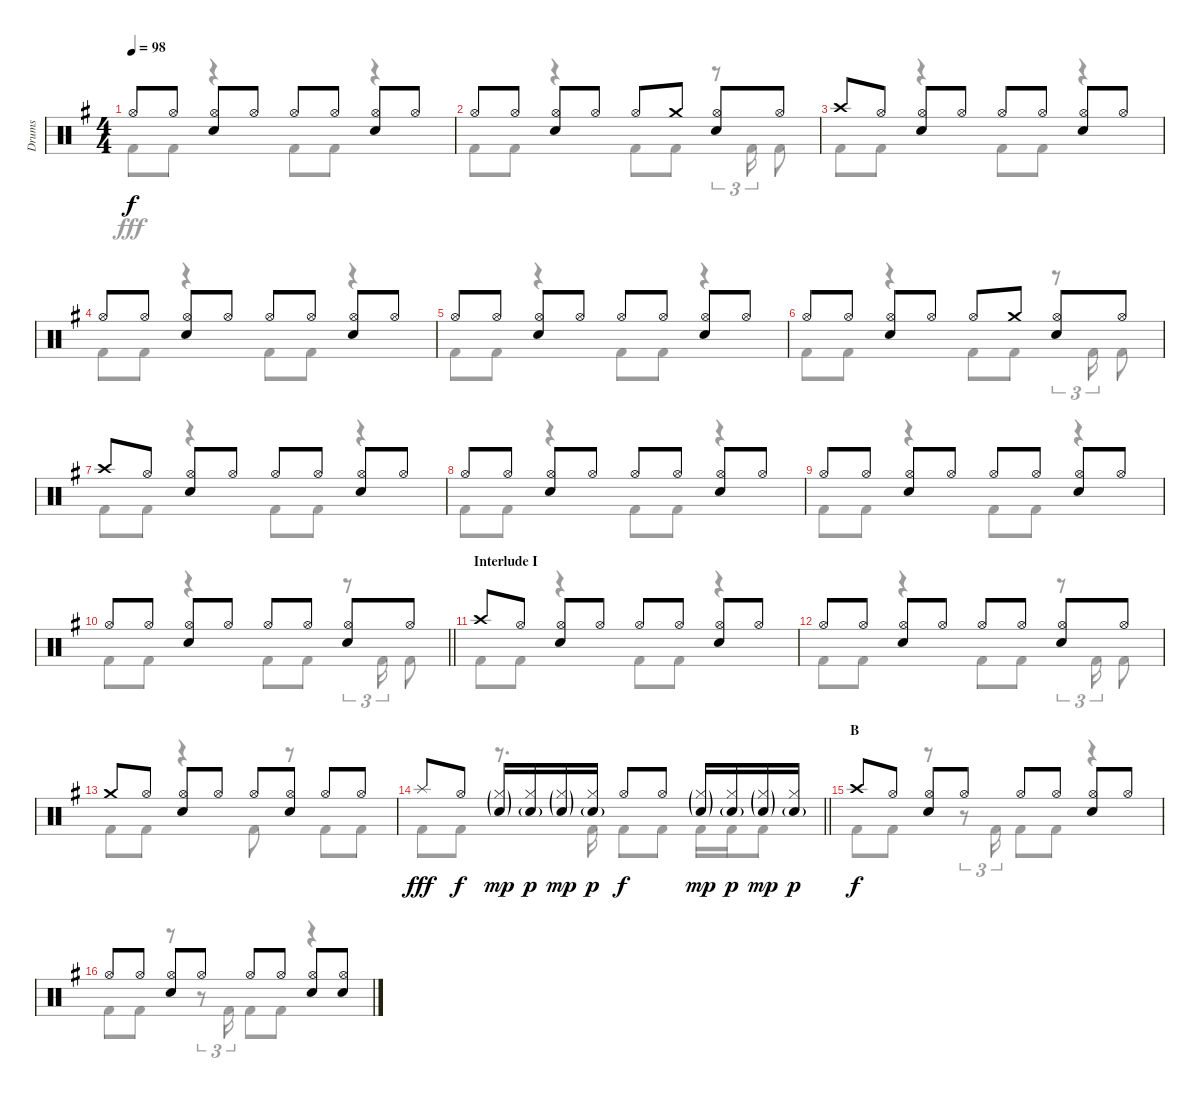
\track ("Drums" "Drums") {instrument percussion}
\staff {score}
\articulation defaults
\voice
\ts (4 4)
\tempo 98
\clef neutral
\ks g "Hi-Hat (open)".8{dy f} "Hi-Hat (open)".8
("Hi-Hat (open)" "Snare (hit) 2").8 "Hi-Hat (open)".8 "Hi-Hat (open)".8 "Hi-Hat (open)".8 ("Hi-Hat (open)" "Snare (hit) 2").8 "Hi-Hat (open)".8 |
"Hi-Hat (open)".8 "Hi-Hat (open)".8 ("Hi-Hat (open)" "Snare (hit) 2").8 "Hi-Hat (open)".8 "Hi-Hat (open)".8 "Crash medium (hit)".8 ("Hi-Hat (open)" "Snare (hit) 2").8 "Hi-Hat (open)".8 |
"Crash high (hit)".8 "Hi-Hat (open)".8 ("Hi-Hat (open)" "Snare (hit) 2").8 "Hi-Hat (open)".8 "Hi-Hat (open)".8 "Hi-Hat (open)".8 ("Hi-Hat (open)" "Snare (hit) 2").8 "Hi-Hat (open)".8 |
"Hi-Hat (open)".8 "Hi-Hat (open)".8 ("Hi-Hat (open)" "Snare (hit) 2").8 "Hi-Hat (open)".8 "Hi-Hat (open)".8 "Hi-Hat (open)".8 ("Hi-Hat (open)" "Snare (hit) 2").8 "Hi-Hat (open)".8 |
"Hi-Hat (open)".8 "Hi-Hat (open)".8 ("Hi-Hat (open)" "Snare (hit) 2").8 "Hi-Hat (open)".8 "Hi-Hat (open)".8 "Hi-Hat (open)".8 ("Hi-Hat (open)" "Snare (hit) 2").8 "Hi-Hat (open)".8 |
"Hi-Hat (open)".8 "Hi-Hat (open)".8 ("Hi-Hat (open)" "Snare (hit) 2").8 "Hi-Hat (open)".8 "Hi-Hat (open)".8 "Crash medium (hit)".8 ("Hi-Hat (open)" "Snare (hit) 2").8 "Hi-Hat (open)".8 |
"Crash high (hit)".8 "Hi-Hat (open)".8 ("Hi-Hat (open)" "Snare (hit) 2").8 "Hi-Hat (open)".8 "Hi-Hat (open)".8 "Hi-Hat (open)".8 ("Hi-Hat (open)" "Snare (hit) 2").8 "Hi-Hat (open)".8 |
"Hi-Hat (open)".8 "Hi-Hat (open)".8 ("Hi-Hat (open)" "Snare (hit) 2").8 "Hi-Hat (open)".8 "Hi-Hat (open)".8 "Hi-Hat (open)".8 ("Hi-Hat (open)" "Snare (hit) 2").8 "Hi-Hat (open)".8 |
"Hi-Hat (open)".8 "Hi-Hat (open)".8 ("Hi-Hat (open)" "Snare (hit) 2").8 "Hi-Hat (open)".8 "Hi-Hat (open)".8 "Hi-Hat (open)".8 ("Hi-Hat (open)" "Snare (hit) 2").8 "Hi-Hat (open)".8 |
\barLineRight lightlight "Hi-Hat (open)".8 "Hi-Hat (open)".8
("Hi-Hat (open)" "Snare (hit) 2").8 "Hi-Hat (open)".8 "Hi-Hat (open)".8 "Hi-Hat (open)".8 ("Hi-Hat (open)" "Snare (hit) 2").8 "Hi-Hat (open)".8 |
\section ("" "Interlude I")
"Crash high (hit)".8 "Hi-Hat (open)".8 ("Hi-Hat (open)" "Snare (hit) 2").8 "Hi-Hat (open)".8 "Hi-Hat (open)".8 "Hi-Hat (open)".8 ("Hi-Hat (open)" "Snare (hit) 2").8 "Hi-Hat (open)".8 |
"Hi-Hat (open)".8 "Hi-Hat (open)".8 ("Hi-Hat (open)" "Snare (hit) 2").8 "Hi-Hat (open)".8 "Hi-Hat (open)".8 "Hi-Hat (open)".8 ("Hi-Hat (open)" "Snare (hit) 2").8 "Hi-Hat (open)".8 |
"Crash medium (hit)".8 "Hi-Hat (open)".8 ("Hi-Hat (open)" "Snare (hit) 2").8 "Hi-Hat (open)".8 "Hi-Hat (open)".8 ("Hi-Hat (open)" "Snare (hit) 2").8 "Hi-Hat (open)".8 "Hi-Hat (open)".8 |
\barLineRight lightlight "Splash (hit)".8{dy fff} "Hi-Hat (open)".8{dy f}
("Hi-Hat (closed)"{g} "Snare (hit) 2"{g}).16{dy mp} ("Hi-Hat (closed)" "Snare (hit) 2"{g}).16{dy p} ("Hi-Hat (closed)"{g} "Snare (hit) 2"{g}).16{dy mp} ("Hi-Hat (closed)" "Snare (hit) 2"{g}).16{dy p} "Hi-Hat (open)".8{dy f} "Hi-Hat (open)".8 ("Hi-Hat (closed)"{g} "Snare (hit) 2"{g}).16{dy mp} ("Hi-Hat (closed)" "Snare (hit) 2"{g}).16{dy p} ("Hi-Hat (closed)"{g} "Snare (hit) 2"{g}).16{dy mp} ("Hi-Hat (closed)" "Snare (hit) 2"{g}).16{dy p} |
\section ("" "B")
"Crash high (hit)".8{dy f} "Hi-Hat (open)".8 ("Hi-Hat (open)" "Snare (hit) 2").8 "Hi-Hat (open)".8 "Hi-Hat (open)".8 "Hi-Hat (open)".8 ("Hi-Hat (open)" "Snare (hit) 2").8 "Hi-Hat (open)".8 |
"Hi-Hat (open)".8 "Hi-Hat (open)".8 ("Hi-Hat (open)" "Snare (hit) 2").8 "Hi-Hat (open)".8 "Hi-Hat (open)".8 "Hi-Hat (open)".8 ("Hi-Hat (open)" "Snare (hit) 2").8 ("Hi-Hat (open)" "Snare (hit) 2").8
\voice
\clef neutral
\ottava regular
\simile none
\ks g "Kick (hit) 2".8{dy fff} "Kick (hit) 2".8
r.4 "Kick (hit) 2".8 "Kick (hit) 2".8 r.4 |
"Kick (hit) 2".8 "Kick (hit) 2".8 r.4 "Kick (hit) 2".8 "Kick (hit) 2".8 r.8{tu (3 2)} "Kick (hit) 2".16{tu (3 2)} "Kick (hit) 2".8 |
"Kick (hit) 2".8 "Kick (hit) 2".8 r.4 "Kick (hit) 2".8 "Kick (hit) 2".8 r.4 |
"Kick (hit) 2".8 "Kick (hit) 2".8 r.4 "Kick (hit) 2".8 "Kick (hit) 2".8 r.4 |
"Kick (hit) 2".8 "Kick (hit) 2".8 r.4 "Kick (hit) 2".8 "Kick (hit) 2".8 r.4 |
"Kick (hit) 2".8 "Kick (hit) 2".8 r.4 "Kick (hit) 2".8 "Kick (hit) 2".8 r.8{tu (3 2)} "Kick (hit) 2".16{tu (3 2)} "Kick (hit) 2".8 |
"Kick (hit) 2".8 "Kick (hit) 2".8 r.4 "Kick (hit) 2".8 "Kick (hit) 2".8 r.4 |
"Kick (hit) 2".8 "Kick (hit) 2".8 r.4 "Kick (hit) 2".8 "Kick (hit) 2".8 r.4 |
"Kick (hit) 2".8 "Kick (hit) 2".8 r.4 "Kick (hit) 2".8 "Kick (hit) 2".8 r.4 |
\barLineRight lightlight "Kick (hit) 2".8 "Kick (hit) 2".8
r.4 "Kick (hit) 2".8 "Kick (hit) 2".8 r.8{tu (3 2)} "Kick (hit) 2".16{tu (3 2)} "Kick (hit) 2".8 |
"Kick (hit) 2".8 "Kick (hit) 2".8 r.4 "Kick (hit) 2".8 "Kick (hit) 2".8 r.4 |
"Kick (hit) 2".8 "Kick (hit) 2".8 r.4 "Kick (hit) 2".8 "Kick (hit) 2".8 r.8{tu (3 2)} "Kick (hit) 2".16{tu (3 2)} "Kick (hit) 2".8 |
"Kick (hit) 2".8 "Kick (hit) 2".8 r.4 "Kick (hit) 2".8 r.8 "Kick (hit) 2".8 "Kick (hit) 2".8 |
\barLineRight lightlight "Kick (hit) 2".8 "Kick (hit) 2".8
r.8{d} "Kick (hit) 2".16 "Kick (hit) 2".8 "Kick (hit) 2".8 "Kick (hit) 2".16 "Kick (hit) 2".16 "Kick (hit) 2".8 |
"Kick (hit) 2".8 "Kick (hit) 2".8 r.8 r.8{tu (3 2)} "Kick (hit) 2".16{tu (3 2)} "Kick (hit) 2".8 "Kick (hit) 2".8 r.4 |
"Kick (hit) 2".8 "Kick (hit) 2".8 r.8 r.8{tu (3 2)} "Kick (hit) 2".16{tu (3 2)} "Kick (hit) 2".8 "Kick (hit) 2".8 r.4
